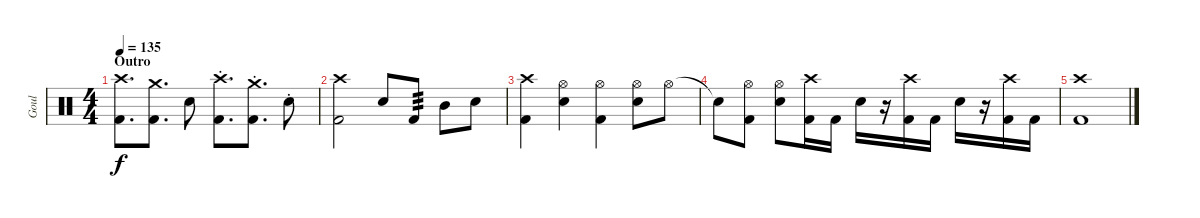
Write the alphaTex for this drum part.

\track ("Goul" "Goul") {instrument percussion}
\staff {score}
\articulation defaults
\ts (4 4)
\section ("" "Outro")
\tempo 135
\clef neutral
\ks c
("Crash high (hit)" "Kick (hit) 2").8{d dy f} ("Crash medium (hit)" "Kick (hit) 2").8{d} "Electric Snare (hit)".8 ("Crash high (hit)"{st} "Kick (hit) 2"{st}).8{d} ("Crash medium (hit)"{st} "Kick (hit) 2"{st}).8{d} "Electric Snare (hit)"{st}.8 |
("Crash high (hit)" "Kick (hit) 2").2 "Electric Snare (hit)".8 "Kick (hit) 2".8{tp 3} "Mid Tom (hit)".8 "Electric Snare (hit)".8 |
("Crash high (hit)" "Kick (hit) 2").4 ("Hi-Hat (open)" "Electric Snare (hit)").4 ("Hi-Hat (open)" "Kick (hit) 2").4 ("Hi-Hat (open)" "Electric Snare (hit)").8 "Hi-Hat (open)".8 |
"Snare (hit)"{t}.8 ("Hi-Hat (open)" "Kick (hit) 2").8 ("Electric Snare (hit)" "Hi-Hat (open)").8 ("Crash high (hit)" "Kick (hit) 2").16 "Kick (hit) 2".16 "Electric Snare (hit)".16 r.16 ("Crash high (hit)" "Kick (hit) 2").16 "Kick (hit) 2".16 "Electric Snare (hit)".16 r.16 ("Crash high (hit)" "Kick (hit) 2").16 "Kick (hit) 2".16 |
("Crash high (hit)" "Kick (hit) 2").1
